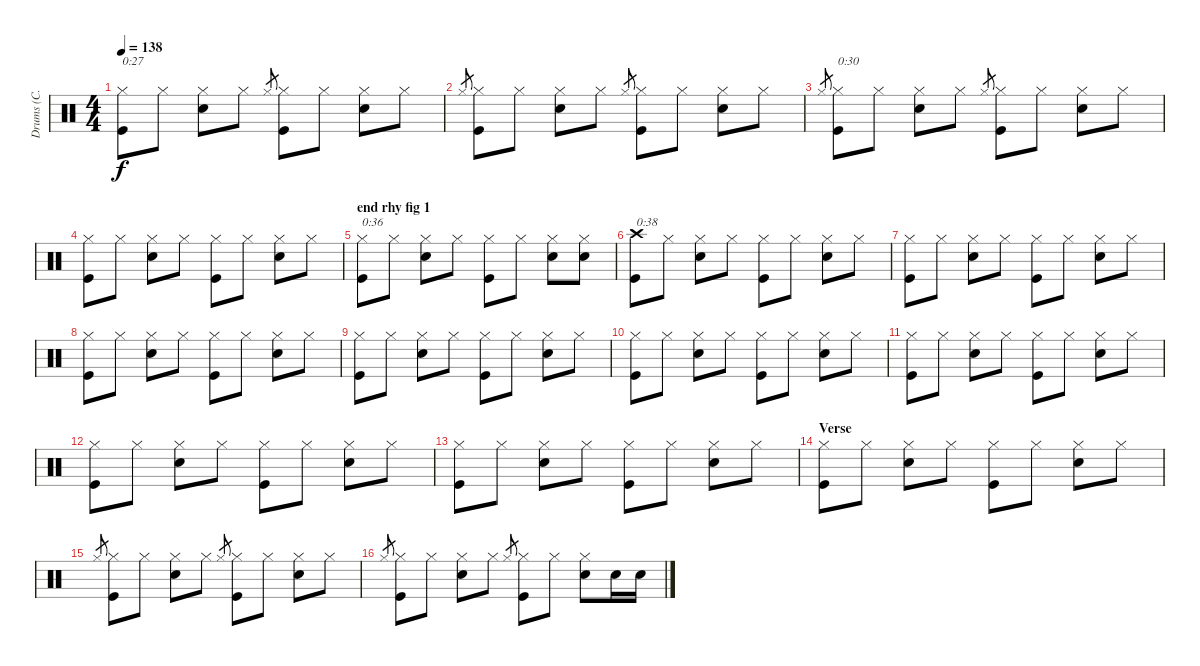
\track ("Drums (C. Watts)" "Drums (C. ") {instrument percussion}
\staff {score}
\articulation defaults
\ts (4 4)
\tempo 138
\clef neutral
\ks c
("Hi-Hat (closed)" "Kick (hit)").8{txt "0:27" dy f} "Hi-Hat (closed)".8 ("Hi-Hat (closed)" "Snare (hit) 2").8 "Hi-Hat (closed)".8 "Hi-Hat (closed)".8{gr} ("Hi-Hat (closed)" "Kick (hit)").8 "Hi-Hat (closed)".8 ("Hi-Hat (closed)" "Snare (hit) 2").8 "Hi-Hat (closed)".8 |
"Hi-Hat (closed)".8{gr} ("Hi-Hat (closed)" "Kick (hit)").8 "Hi-Hat (closed)".8 ("Hi-Hat (closed)" "Snare (hit) 2").8 "Hi-Hat (closed)".8 "Hi-Hat (closed)".8{gr} ("Hi-Hat (closed)" "Kick (hit)").8 "Hi-Hat (closed)".8 ("Hi-Hat (closed)" "Snare (hit) 2").8 "Hi-Hat (closed)".8 |
"Hi-Hat (closed)".8{gr} ("Hi-Hat (closed)" "Kick (hit)").8{txt "0:30"} "Hi-Hat (closed)".8 ("Hi-Hat (closed)" "Snare (hit) 2").8 "Hi-Hat (closed)".8 "Hi-Hat (closed)".8{gr} ("Hi-Hat (closed)" "Kick (hit)").8 "Hi-Hat (closed)".8 ("Hi-Hat (closed)" "Snare (hit) 2").8 "Hi-Hat (closed)".8 |
("Hi-Hat (closed)" "Kick (hit)").8 "Hi-Hat (closed)".8 ("Hi-Hat (closed)" "Snare (hit) 2").8 "Hi-Hat (closed)".8 ("Hi-Hat (closed)" "Kick (hit)").8 "Hi-Hat (closed)".8 ("Hi-Hat (closed)" "Snare (hit) 2").8 "Hi-Hat (closed)".8 |
\section ("" "end rhy fig 1")
("Hi-Hat (closed)" "Kick (hit)").8{txt "0:36"} "Hi-Hat (closed)".8 ("Hi-Hat (closed)" "Snare (hit) 2").8 "Hi-Hat (closed)".8 ("Hi-Hat (closed)" "Kick (hit)").8 "Hi-Hat (closed)".8 ("Hi-Hat (closed)" "Snare (hit) 2").8 ("Hi-Hat (closed)" "Snare (hit) 2").8 |
("Crash high (hit)" "Kick (hit)").8{txt "0:38"} "Hi-Hat (closed)".8 ("Hi-Hat (closed)" "Snare (hit) 2").8 "Hi-Hat (closed)".8 ("Hi-Hat (closed)" "Kick (hit)").8 "Hi-Hat (closed)".8 ("Hi-Hat (closed)" "Snare (hit) 2").8 "Hi-Hat (closed)".8 |
("Hi-Hat (closed)" "Kick (hit)").8 "Hi-Hat (closed)".8 ("Hi-Hat (closed)" "Snare (hit) 2").8 "Hi-Hat (closed)".8 ("Hi-Hat (closed)" "Kick (hit)").8 "Hi-Hat (closed)".8 ("Hi-Hat (closed)" "Snare (hit) 2").8 "Hi-Hat (closed)".8 |
("Hi-Hat (closed)" "Kick (hit)").8 "Hi-Hat (closed)".8 ("Hi-Hat (closed)" "Snare (hit) 2").8 "Hi-Hat (closed)".8 ("Hi-Hat (closed)" "Kick (hit)").8 "Hi-Hat (closed)".8 ("Hi-Hat (closed)" "Snare (hit) 2").8 "Hi-Hat (closed)".8 |
("Hi-Hat (closed)" "Kick (hit)").8 "Hi-Hat (closed)".8 ("Hi-Hat (closed)" "Snare (hit) 2").8 "Hi-Hat (closed)".8 ("Hi-Hat (closed)" "Kick (hit)").8 "Hi-Hat (closed)".8 ("Hi-Hat (closed)" "Snare (hit) 2").8 "Hi-Hat (closed)".8 |
("Hi-Hat (closed)" "Kick (hit)").8 "Hi-Hat (closed)".8 ("Hi-Hat (closed)" "Snare (hit) 2").8 "Hi-Hat (closed)".8 ("Hi-Hat (closed)" "Kick (hit)").8 "Hi-Hat (closed)".8 ("Hi-Hat (closed)" "Snare (hit) 2").8 "Hi-Hat (closed)".8 |
("Hi-Hat (closed)" "Kick (hit)").8 "Hi-Hat (closed)".8 ("Hi-Hat (closed)" "Snare (hit) 2").8 "Hi-Hat (closed)".8 ("Hi-Hat (closed)" "Kick (hit)").8 "Hi-Hat (closed)".8 ("Hi-Hat (closed)" "Snare (hit) 2").8 "Hi-Hat (closed)".8 |
("Hi-Hat (closed)" "Kick (hit)").8 "Hi-Hat (closed)".8 ("Hi-Hat (closed)" "Snare (hit) 2").8 "Hi-Hat (closed)".8 ("Hi-Hat (closed)" "Kick (hit)").8 "Hi-Hat (closed)".8 ("Hi-Hat (closed)" "Snare (hit) 2").8 "Hi-Hat (closed)".8 |
("Hi-Hat (closed)" "Kick (hit)").8 "Hi-Hat (closed)".8 ("Hi-Hat (closed)" "Snare (hit) 2").8 "Hi-Hat (closed)".8 ("Hi-Hat (closed)" "Kick (hit)").8 "Hi-Hat (closed)".8 ("Hi-Hat (closed)" "Snare (hit) 2").8 "Hi-Hat (closed)".8 |
\section ("" "Verse")
("Hi-Hat (closed)" "Kick (hit)").8 "Hi-Hat (closed)".8 ("Hi-Hat (closed)" "Snare (hit) 2").8 "Hi-Hat (closed)".8 ("Hi-Hat (closed)" "Kick (hit)").8 "Hi-Hat (closed)".8 ("Hi-Hat (closed)" "Snare (hit) 2").8 "Hi-Hat (closed)".8 |
"Hi-Hat (closed)".8{gr} ("Hi-Hat (closed)" "Kick (hit)").8 "Hi-Hat (closed)".8 ("Hi-Hat (closed)" "Snare (hit) 2").8 "Hi-Hat (closed)".8 "Hi-Hat (closed)".8{gr} ("Hi-Hat (closed)" "Kick (hit)").8 "Hi-Hat (closed)".8 ("Hi-Hat (closed)" "Snare (hit) 2").8 "Hi-Hat (closed)".8 |
"Hi-Hat (closed)".8{gr} ("Hi-Hat (closed)" "Kick (hit)").8 "Hi-Hat (closed)".8 ("Hi-Hat (closed)" "Snare (hit) 2").8 "Hi-Hat (closed)".8 "Hi-Hat (closed)".8{gr} ("Hi-Hat (closed)" "Kick (hit)").8 "Hi-Hat (closed)".8 ("Hi-Hat (closed)" "Snare (hit) 2").8 "Snare (hit) 2".16 "Snare (hit) 2".16
